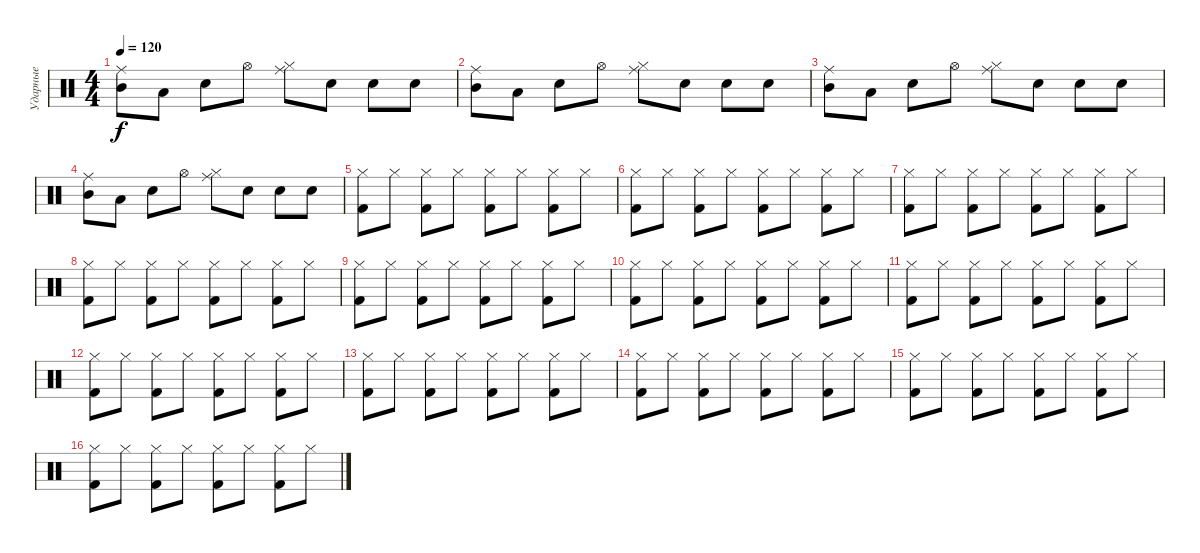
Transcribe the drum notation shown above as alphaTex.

\track ("Ударные" "Ударные") {instrument percussion}
\staff {score}
\articulation defaults
\ts (4 4)
\tempo 120
\clef neutral
\ks c
("Ride (middle)" "Mid Tom (hit)").8{dy f} "Low Tom (hit)".8 "Electric Snare (hit)".8 "Hi-Hat (open)".8 ("Ride (middle)" "Hi-Hat (closed)").8 "Snare (hit)".8 "Electric Snare (hit)".8 "Snare (hit)".8 |
("Ride (middle)" "Mid Tom (hit)").8 "Low Tom (hit)".8 "Electric Snare (hit)".8 "Hi-Hat (open)".8 ("Ride (middle)" "Hi-Hat (closed)").8 "Snare (hit)".8 "Electric Snare (hit)".8 "Snare (hit)".8 |
("Ride (middle)" "Mid Tom (hit)").8 "Low Tom (hit)".8 "Electric Snare (hit)".8 "Hi-Hat (open)".8 ("Ride (middle)" "Hi-Hat (closed)").8 "Snare (hit)".8 "Electric Snare (hit)".8 "Snare (hit)".8 |
("Ride (middle)" "Mid Tom (hit)").8 "Low Tom (hit)".8 "Electric Snare (hit)".8 "Hi-Hat (open)".8 ("Ride (middle)" "Hi-Hat (closed)").8 "Snare (hit)".8 "Electric Snare (hit)".8 "Snare (hit)".8 |
("Kick (hit) 2" "Hi-Hat (closed)").8 "Hi-Hat (closed)".8 ("Kick (hit) 2" "Hi-Hat (closed)").8 "Hi-Hat (closed)".8 ("Kick (hit) 2" "Hi-Hat (closed)").8 "Hi-Hat (closed)".8 ("Kick (hit) 2" "Hi-Hat (closed)").8 "Hi-Hat (closed)".8 |
("Kick (hit) 2" "Hi-Hat (closed)").8 "Hi-Hat (closed)".8 ("Kick (hit) 2" "Hi-Hat (closed)").8 "Hi-Hat (closed)".8 ("Kick (hit) 2" "Hi-Hat (closed)").8 "Hi-Hat (closed)".8 ("Kick (hit) 2" "Hi-Hat (closed)").8 "Hi-Hat (closed)".8 |
("Kick (hit) 2" "Hi-Hat (closed)").8 "Hi-Hat (closed)".8 ("Kick (hit) 2" "Hi-Hat (closed)").8 "Hi-Hat (closed)".8 ("Kick (hit) 2" "Hi-Hat (closed)").8 "Hi-Hat (closed)".8 ("Kick (hit) 2" "Hi-Hat (closed)").8 "Hi-Hat (closed)".8 |
("Kick (hit) 2" "Hi-Hat (closed)").8 "Hi-Hat (closed)".8 ("Kick (hit) 2" "Hi-Hat (closed)").8 "Hi-Hat (closed)".8 ("Kick (hit) 2" "Hi-Hat (closed)").8 "Hi-Hat (closed)".8 ("Kick (hit) 2" "Hi-Hat (closed)").8 "Hi-Hat (closed)".8 |
("Kick (hit) 2" "Hi-Hat (closed)").8 "Hi-Hat (closed)".8 ("Kick (hit) 2" "Hi-Hat (closed)").8 "Hi-Hat (closed)".8 ("Kick (hit) 2" "Hi-Hat (closed)").8 "Hi-Hat (closed)".8 ("Kick (hit) 2" "Hi-Hat (closed)").8 "Hi-Hat (closed)".8 |
("Kick (hit) 2" "Hi-Hat (closed)").8 "Hi-Hat (closed)".8 ("Kick (hit) 2" "Hi-Hat (closed)").8 "Hi-Hat (closed)".8 ("Kick (hit) 2" "Hi-Hat (closed)").8 "Hi-Hat (closed)".8 ("Kick (hit) 2" "Hi-Hat (closed)").8 "Hi-Hat (closed)".8 |
("Kick (hit) 2" "Hi-Hat (closed)").8 "Hi-Hat (closed)".8 ("Kick (hit) 2" "Hi-Hat (closed)").8 "Hi-Hat (closed)".8 ("Kick (hit) 2" "Hi-Hat (closed)").8 "Hi-Hat (closed)".8 ("Kick (hit) 2" "Hi-Hat (closed)").8 "Hi-Hat (closed)".8 |
("Kick (hit) 2" "Hi-Hat (closed)").8 "Hi-Hat (closed)".8 ("Kick (hit) 2" "Hi-Hat (closed)").8 "Hi-Hat (closed)".8 ("Kick (hit) 2" "Hi-Hat (closed)").8 "Hi-Hat (closed)".8 ("Kick (hit) 2" "Hi-Hat (closed)").8 "Hi-Hat (closed)".8 |
("Kick (hit) 2" "Hi-Hat (closed)").8 "Hi-Hat (closed)".8 ("Kick (hit) 2" "Hi-Hat (closed)").8 "Hi-Hat (closed)".8 ("Kick (hit) 2" "Hi-Hat (closed)").8 "Hi-Hat (closed)".8 ("Kick (hit) 2" "Hi-Hat (closed)").8 "Hi-Hat (closed)".8 |
("Kick (hit) 2" "Hi-Hat (closed)").8 "Hi-Hat (closed)".8 ("Kick (hit) 2" "Hi-Hat (closed)").8 "Hi-Hat (closed)".8 ("Kick (hit) 2" "Hi-Hat (closed)").8 "Hi-Hat (closed)".8 ("Kick (hit) 2" "Hi-Hat (closed)").8 "Hi-Hat (closed)".8 |
("Kick (hit) 2" "Hi-Hat (closed)").8 "Hi-Hat (closed)".8 ("Kick (hit) 2" "Hi-Hat (closed)").8 "Hi-Hat (closed)".8 ("Kick (hit) 2" "Hi-Hat (closed)").8 "Hi-Hat (closed)".8 ("Kick (hit) 2" "Hi-Hat (closed)").8 "Hi-Hat (closed)".8 |
("Kick (hit) 2" "Hi-Hat (closed)").8 "Hi-Hat (closed)".8 ("Kick (hit) 2" "Hi-Hat (closed)").8 "Hi-Hat (closed)".8 ("Kick (hit) 2" "Hi-Hat (closed)").8 "Hi-Hat (closed)".8 ("Kick (hit) 2" "Hi-Hat (closed)").8 "Hi-Hat (closed)".8
